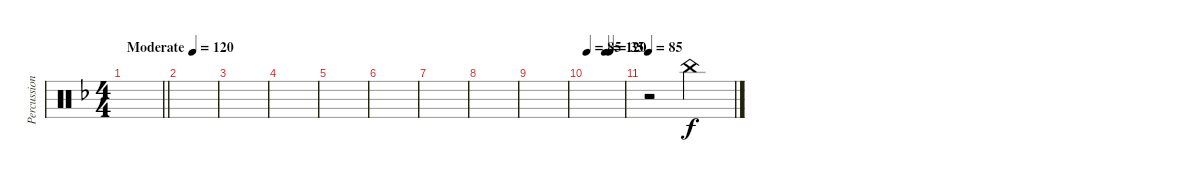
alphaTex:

\track ("Percussions" "Percussion") {instrument percussion}
\staff {score}
\articulation defaults
\ts (4 4)
\tempo (120 "Moderate")
\clef neutral
\barLineRight lightlight
\ks f
|
|
|
|
|
|
|
|
|
\tempo 85
\tempo (120 0.5)
\tempo (35 0.625)
|
\tempo 85
r.2 "China (hit)".2
